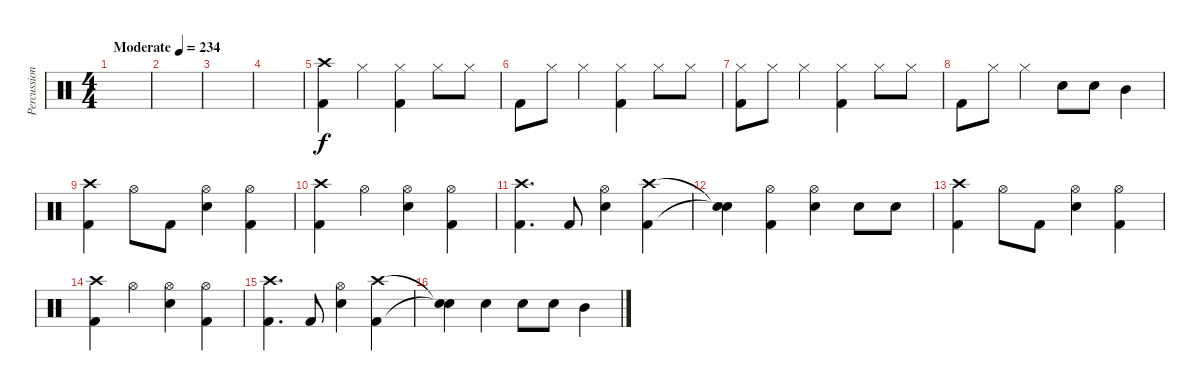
\track ("Percussions" "Percussion") {instrument percussion}
\staff {score}
\articulation defaults
\ts (4 4)
\tempo (234 "Moderate")
\clef neutral
\ks c
|
|
|
|
("Crash high (hit)" "Kick (hit) 2").4 "Hi-Hat (closed)".4 ("Hi-Hat (closed)" "Kick (hit) 2").4 "Hi-Hat (closed)".8 "Hi-Hat (closed)".8 |
"Kick (hit) 2".8 "Hi-Hat (closed)".8 "Hi-Hat (closed)".4 ("Hi-Hat (closed)" "Kick (hit) 2").4 "Hi-Hat (closed)".8 "Hi-Hat (closed)".8 |
("Hi-Hat (closed)" "Kick (hit) 2").8 "Hi-Hat (closed)".8 "Hi-Hat (closed)".4 ("Hi-Hat (closed)" "Kick (hit) 2").4 "Hi-Hat (closed)".8 "Hi-Hat (closed)".8 |
"Kick (hit) 2".8 "Hi-Hat (closed)".8 "Hi-Hat (closed)".4 "Snare (hit) 2".8 "Snare (hit) 2".8 "Mid Tom (hit)".4 |
("Crash high (hit)" "Kick (hit) 2").4 "Hi-Hat (open)".8 "Kick (hit) 2".8 ("Hi-Hat (open)" "Snare (hit) 2").4 ("Hi-Hat (open)" "Kick (hit) 2").4 |
("Crash high (hit)" "Kick (hit) 2").4 "Hi-Hat (open)".4 ("Hi-Hat (open)" "Snare (hit) 2").4 ("Hi-Hat (open)" "Kick (hit) 2").4 |
("Crash high (hit)" "Kick (hit) 2").4{d} "Kick (hit) 2".8 ("Hi-Hat (open)" "Snare (hit) 2").4 ("Crash high (hit)" "Kick (hit) 2").4 |
("Snare (hit)"{t} "Snare (hit)"{t}).4 ("Hi-Hat (open)" "Kick (hit) 2").4 ("Hi-Hat (open)" "Snare (hit) 2").4 "Snare (hit) 2".8 "Snare (hit) 2".8 |
("Crash high (hit)" "Kick (hit) 2").4 "Hi-Hat (open)".8 "Kick (hit) 2".8 ("Hi-Hat (open)" "Snare (hit) 2").4 ("Hi-Hat (open)" "Kick (hit) 2").4 |
("Crash high (hit)" "Kick (hit) 2").4 "Hi-Hat (open)".4 ("Hi-Hat (open)" "Snare (hit) 2").4 ("Hi-Hat (open)" "Kick (hit) 2").4 |
("Crash high (hit)" "Kick (hit) 2").4{d} "Kick (hit) 2".8 ("Hi-Hat (open)" "Snare (hit) 2").4 ("Crash high (hit)" "Kick (hit) 2").4 |
("Snare (hit)"{t} "Snare (hit)"{t}).4 "Snare (hit) 2".4 "Snare (hit) 2".8 "Snare (hit) 2".8 "Mid Tom (hit)".4
